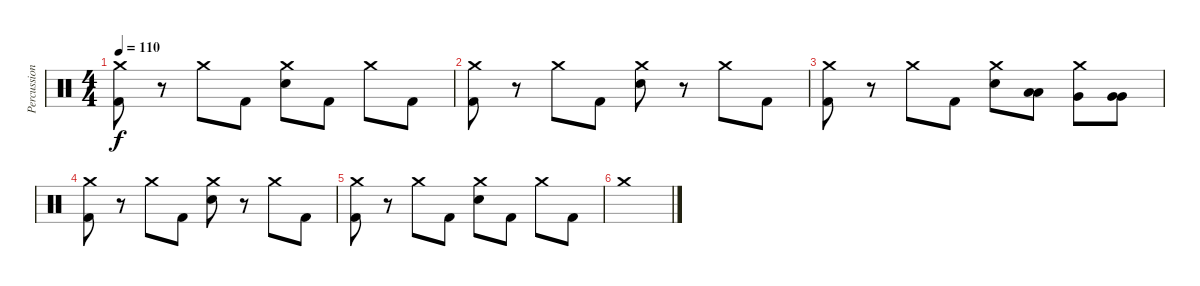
\track ("Percussions" "Percussion") {instrument percussion}
\staff {score}
\articulation defaults
\ts (4 4)
\tempo 110
\clef neutral
\ks c
("Crash medium (hit)" "Kick (hit) 2").8{dy f} r.8 "Crash medium (hit)".8 "Kick (hit) 2".8 ("Crash medium (hit)" "Snare (hit) 2").8 "Kick (hit) 2".8 "Crash medium (hit)".8 "Kick (hit) 2".8 |
("Crash medium (hit)" "Kick (hit) 2").8 r.8 "Crash medium (hit)".8 "Kick (hit) 2".8 ("Crash medium (hit)" "Snare (hit) 2").8 r.8 "Crash medium (hit)".8 "Kick (hit) 2".8 |
("Crash medium (hit)" "Kick (hit) 2").8 r.8 "Crash medium (hit)".8 "Kick (hit) 2".8 ("Crash medium (hit)" "Snare (hit) 2").8 ("Low Tom (hit)" "Low Tom (hit)").8 ("Crash medium (hit)" "Very Low Tom (hit)").8 ("Very Low Tom (hit)" "Very Low Tom (hit)").8 |
("Crash medium (hit)" "Kick (hit) 2").8 r.8 "Crash medium (hit)".8 "Kick (hit) 2".8 ("Crash medium (hit)" "Snare (hit) 2").8 r.8 "Crash medium (hit)".8 "Kick (hit) 2".8 |
("Crash medium (hit)" "Kick (hit) 2").8 r.8 "Crash medium (hit)".8 "Kick (hit) 2".8 ("Crash medium (hit)" "Snare (hit) 2").8 "Kick (hit) 2".8 "Crash medium (hit)".8 "Kick (hit) 2".8 |
"Crash medium (hit)".1
